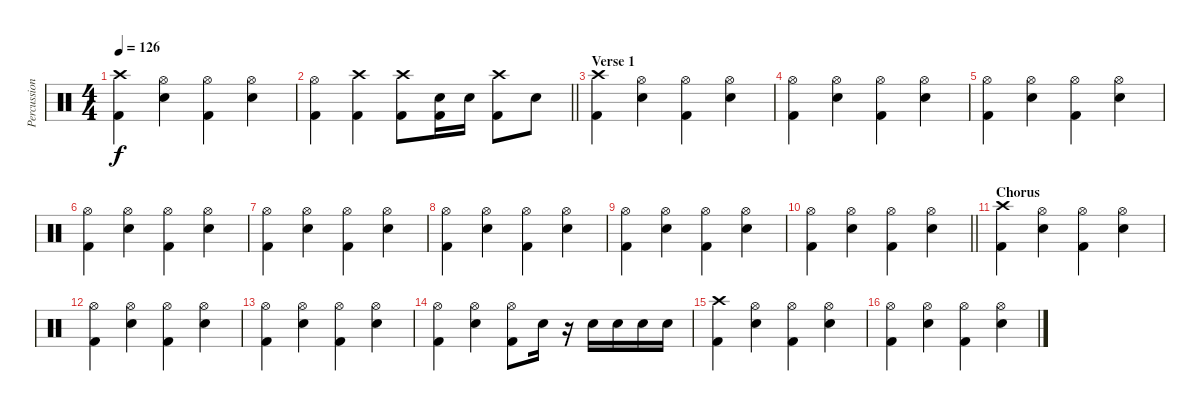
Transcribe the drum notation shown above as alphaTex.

\track ("Percussion" "Percussion") {instrument percussion}
\staff {score}
\articulation defaults
\ts (4 4)
\tempo 126
\clef neutral
\ks c
("Crash high (hit)" "Kick (hit) 2").4{dy f} ("Hi-Hat (open)" "Electric Snare (hit)").4 ("Hi-Hat (open)" "Kick (hit) 2").4 ("Hi-Hat (open)" "Electric Snare (hit)").4 |
\barLineRight lightlight
("Hi-Hat (open)" "Kick (hit) 2").4 ("Crash high (hit)" "Kick (hit) 2").4 ("Crash high (hit)" "Kick (hit) 2").8 ("Electric Snare (hit)" "Kick (hit) 2").16 "Electric Snare (hit)".16 ("Crash high (hit)" "Kick (hit) 2").8 "Electric Snare (hit)".8 |
\section ("" "Verse 1")
("Crash high (hit)" "Kick (hit) 2").4 ("Hi-Hat (open)" "Electric Snare (hit)").4 ("Hi-Hat (open)" "Kick (hit) 2").4 ("Hi-Hat (open)" "Electric Snare (hit)").4 |
("Hi-Hat (open)" "Kick (hit) 2").4 ("Hi-Hat (open)" "Electric Snare (hit)").4 ("Hi-Hat (open)" "Kick (hit) 2").4 ("Hi-Hat (open)" "Electric Snare (hit)").4 |
("Hi-Hat (open)" "Kick (hit) 2").4 ("Hi-Hat (open)" "Electric Snare (hit)").4 ("Hi-Hat (open)" "Kick (hit) 2").4 ("Hi-Hat (open)" "Electric Snare (hit)").4 |
("Hi-Hat (open)" "Kick (hit) 2").4 ("Hi-Hat (open)" "Electric Snare (hit)").4 ("Hi-Hat (open)" "Kick (hit) 2").4 ("Hi-Hat (open)" "Electric Snare (hit)").4 |
("Hi-Hat (open)" "Kick (hit) 2").4 ("Hi-Hat (open)" "Electric Snare (hit)").4 ("Hi-Hat (open)" "Kick (hit) 2").4 ("Hi-Hat (open)" "Electric Snare (hit)").4 |
("Hi-Hat (open)" "Kick (hit) 2").4 ("Hi-Hat (open)" "Electric Snare (hit)").4 ("Hi-Hat (open)" "Kick (hit) 2").4 ("Hi-Hat (open)" "Electric Snare (hit)").4 |
("Hi-Hat (open)" "Kick (hit) 2").4 ("Hi-Hat (open)" "Electric Snare (hit)").4 ("Hi-Hat (open)" "Kick (hit) 2").4 ("Hi-Hat (open)" "Electric Snare (hit)").4 |
\barLineRight lightlight
("Hi-Hat (open)" "Kick (hit) 2").4 ("Hi-Hat (open)" "Electric Snare (hit)").4 ("Hi-Hat (open)" "Kick (hit) 2").4 ("Hi-Hat (open)" "Electric Snare (hit)").4 |
\section ("" "Chorus")
("Crash high (hit)" "Kick (hit) 2").4 ("Hi-Hat (open)" "Electric Snare (hit)").4 ("Hi-Hat (open)" "Kick (hit) 2").4 ("Hi-Hat (open)" "Electric Snare (hit)").4 |
("Hi-Hat (open)" "Kick (hit) 2").4 ("Hi-Hat (open)" "Electric Snare (hit)").4 ("Hi-Hat (open)" "Kick (hit) 2").4 ("Hi-Hat (open)" "Electric Snare (hit)").4 |
("Hi-Hat (open)" "Kick (hit) 2").4 ("Hi-Hat (open)" "Electric Snare (hit)").4 ("Hi-Hat (open)" "Kick (hit) 2").4 ("Hi-Hat (open)" "Electric Snare (hit)").4 |
("Hi-Hat (open)" "Kick (hit) 2").4 ("Hi-Hat (open)" "Electric Snare (hit)").4 ("Hi-Hat (open)" "Kick (hit) 2").8 "Electric Snare (hit)".16 r.16 "Electric Snare (hit)".16 "Electric Snare (hit)".16 "Electric Snare (hit)".16 "Electric Snare (hit)".16 |
("Crash high (hit)" "Kick (hit) 2").4 ("Hi-Hat (open)" "Electric Snare (hit)").4 ("Hi-Hat (open)" "Kick (hit) 2").4 ("Hi-Hat (open)" "Electric Snare (hit)").4 |
("Hi-Hat (open)" "Kick (hit) 2").4 ("Hi-Hat (open)" "Electric Snare (hit)").4 ("Hi-Hat (open)" "Kick (hit) 2").4 ("Hi-Hat (open)" "Electric Snare (hit)").4
